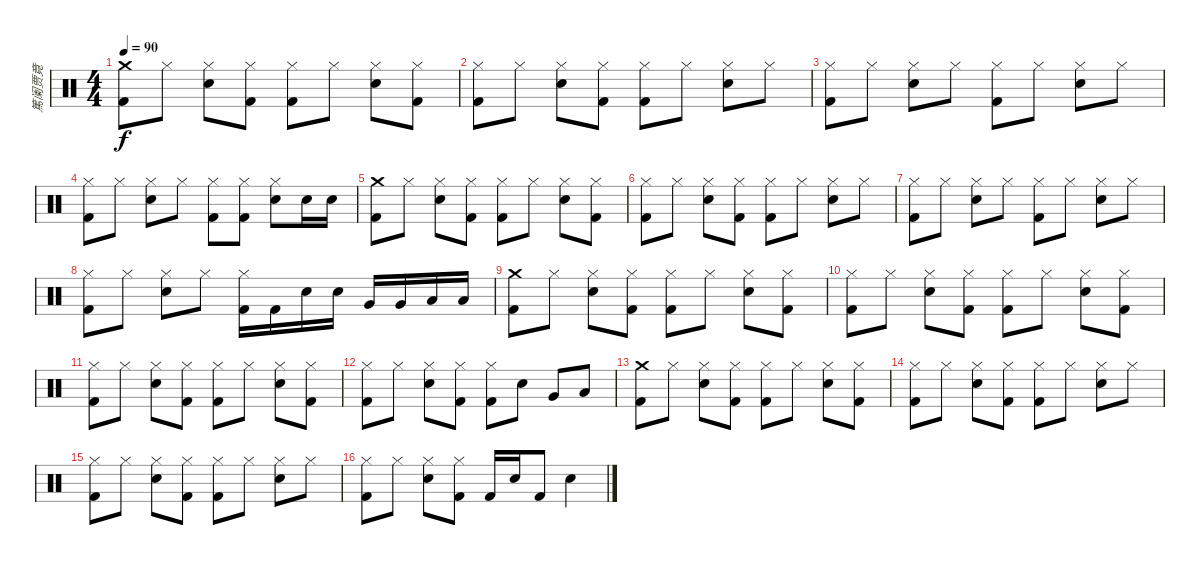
\track ("篤阑贾竟" "篤阑贾竟") {instrument percussion}
\staff {score}
\articulation defaults
\ts (4 4)
\tempo 90
\clef neutral
\ks c
("Crash medium (hit)" "Kick (hit) 2").8{dy f} "Hi-Hat (closed)".8 ("Hi-Hat (closed)" "Snare (hit) 2").8 ("Hi-Hat (closed)" "Kick (hit) 2").8 ("Hi-Hat (closed)" "Kick (hit) 2").8 "Hi-Hat (closed)".8 ("Hi-Hat (closed)" "Snare (hit) 2").8 ("Hi-Hat (closed)" "Kick (hit) 2").8 |
("Hi-Hat (closed)" "Kick (hit) 2").8 "Hi-Hat (closed)".8 ("Hi-Hat (closed)" "Snare (hit) 2").8 ("Hi-Hat (closed)" "Kick (hit) 2").8 ("Hi-Hat (closed)" "Kick (hit) 2").8 "Hi-Hat (closed)".8 ("Hi-Hat (closed)" "Snare (hit) 2").8 "Hi-Hat (closed)".8 |
("Hi-Hat (closed)" "Kick (hit) 2").8 "Hi-Hat (closed)".8 ("Hi-Hat (closed)" "Snare (hit) 2").8 "Hi-Hat (closed)".8 ("Hi-Hat (closed)" "Kick (hit) 2").8 "Hi-Hat (closed)".8 ("Hi-Hat (closed)" "Snare (hit) 2").8 "Hi-Hat (closed)".8 |
("Hi-Hat (closed)" "Kick (hit) 2").8 "Hi-Hat (closed)".8 ("Hi-Hat (closed)" "Snare (hit) 2").8 "Hi-Hat (closed)".8 ("Hi-Hat (closed)" "Kick (hit) 2").8 ("Hi-Hat (closed)" "Kick (hit) 2").8 ("Hi-Hat (closed)" "Snare (hit) 2").8 "Snare (hit) 2".16 "Snare (hit) 2".16 |
("Crash medium (hit)" "Kick (hit) 2").8 "Hi-Hat (closed)".8 ("Hi-Hat (closed)" "Snare (hit) 2").8 ("Hi-Hat (closed)" "Kick (hit) 2").8 ("Hi-Hat (closed)" "Kick (hit) 2").8 "Hi-Hat (closed)".8 ("Hi-Hat (closed)" "Snare (hit) 2").8 ("Hi-Hat (closed)" "Kick (hit) 2").8 |
("Hi-Hat (closed)" "Kick (hit) 2").8 "Hi-Hat (closed)".8 ("Hi-Hat (closed)" "Snare (hit) 2").8 ("Hi-Hat (closed)" "Kick (hit) 2").8 ("Hi-Hat (closed)" "Kick (hit) 2").8 "Hi-Hat (closed)".8 ("Hi-Hat (closed)" "Snare (hit) 2").8 "Hi-Hat (closed)".8 |
("Hi-Hat (closed)" "Kick (hit) 2").8 "Hi-Hat (closed)".8 ("Hi-Hat (closed)" "Snare (hit) 2").8 "Hi-Hat (closed)".8 ("Hi-Hat (closed)" "Kick (hit) 2").8 "Hi-Hat (closed)".8 ("Hi-Hat (closed)" "Snare (hit) 2").8 "Hi-Hat (closed)".8 |
("Hi-Hat (closed)" "Kick (hit) 2").8 "Hi-Hat (closed)".8 ("Hi-Hat (closed)" "Snare (hit) 2").8 "Hi-Hat (closed)".8 ("Hi-Hat (closed)" "Kick (hit) 2").16 "Kick (hit) 2".16 "Snare (hit) 2".16 "Snare (hit) 2".16 "Very Low Tom (hit)".16 "Very Low Tom (hit)".16 "Low Floor Tom (hit)".16 "Low Floor Tom (hit)".16 |
("Crash medium (hit)" "Kick (hit) 2").8 "Hi-Hat (closed)".8 ("Hi-Hat (closed)" "Snare (hit) 2").8 ("Hi-Hat (closed)" "Kick (hit) 2").8 ("Hi-Hat (closed)" "Kick (hit) 2").8 "Hi-Hat (closed)".8 ("Hi-Hat (closed)" "Snare (hit) 2").8 ("Hi-Hat (closed)" "Kick (hit) 2").8 |
("Hi-Hat (closed)" "Kick (hit) 2").8 "Hi-Hat (closed)".8 ("Hi-Hat (closed)" "Snare (hit) 2").8 ("Hi-Hat (closed)" "Kick (hit) 2").8 ("Hi-Hat (closed)" "Kick (hit) 2").8 "Hi-Hat (closed)".8 ("Hi-Hat (closed)" "Snare (hit) 2").8 ("Hi-Hat (closed)" "Kick (hit) 2").8 |
("Hi-Hat (closed)" "Kick (hit) 2").8 "Hi-Hat (closed)".8 ("Hi-Hat (closed)" "Snare (hit) 2").8 ("Hi-Hat (closed)" "Kick (hit) 2").8 ("Hi-Hat (closed)" "Kick (hit) 2").8 "Hi-Hat (closed)".8 ("Hi-Hat (closed)" "Snare (hit) 2").8 ("Hi-Hat (closed)" "Kick (hit) 2").8 |
("Hi-Hat (closed)" "Kick (hit) 2").8 "Hi-Hat (closed)".8 ("Hi-Hat (closed)" "Snare (hit) 2").8 ("Hi-Hat (closed)" "Kick (hit) 2").8 ("Hi-Hat (closed)" "Kick (hit) 2").8 "Snare (hit) 2".8 "Very Low Tom (hit)".8 "Low Floor Tom (hit)".8 |
("Crash medium (hit)" "Kick (hit) 2").8 "Hi-Hat (closed)".8 ("Hi-Hat (closed)" "Snare (hit) 2").8 ("Hi-Hat (closed)" "Kick (hit) 2").8 ("Hi-Hat (closed)" "Kick (hit) 2").8 "Hi-Hat (closed)".8 ("Hi-Hat (closed)" "Snare (hit) 2").8 ("Hi-Hat (closed)" "Kick (hit) 2").8 |
("Hi-Hat (closed)" "Kick (hit) 2").8 "Hi-Hat (closed)".8 ("Hi-Hat (closed)" "Snare (hit) 2").8 ("Hi-Hat (closed)" "Kick (hit) 2").8 ("Hi-Hat (closed)" "Kick (hit) 2").8 "Hi-Hat (closed)".8 ("Hi-Hat (closed)" "Snare (hit) 2").8 "Hi-Hat (closed)".8 |
("Hi-Hat (closed)" "Kick (hit) 2").8 "Hi-Hat (closed)".8 ("Hi-Hat (closed)" "Snare (hit) 2").8 ("Hi-Hat (closed)" "Kick (hit) 2").8 ("Hi-Hat (closed)" "Kick (hit) 2").8 "Hi-Hat (closed)".8 ("Hi-Hat (closed)" "Snare (hit) 2").8 "Hi-Hat (closed)".8 |
("Hi-Hat (closed)" "Kick (hit) 2").8 "Hi-Hat (closed)".8 ("Hi-Hat (closed)" "Snare (hit) 2").8 ("Hi-Hat (closed)" "Kick (hit) 2").8 "Kick (hit) 2".16 "Snare (hit) 2".16 "Kick (hit) 2".8 "Snare (hit) 2".4
